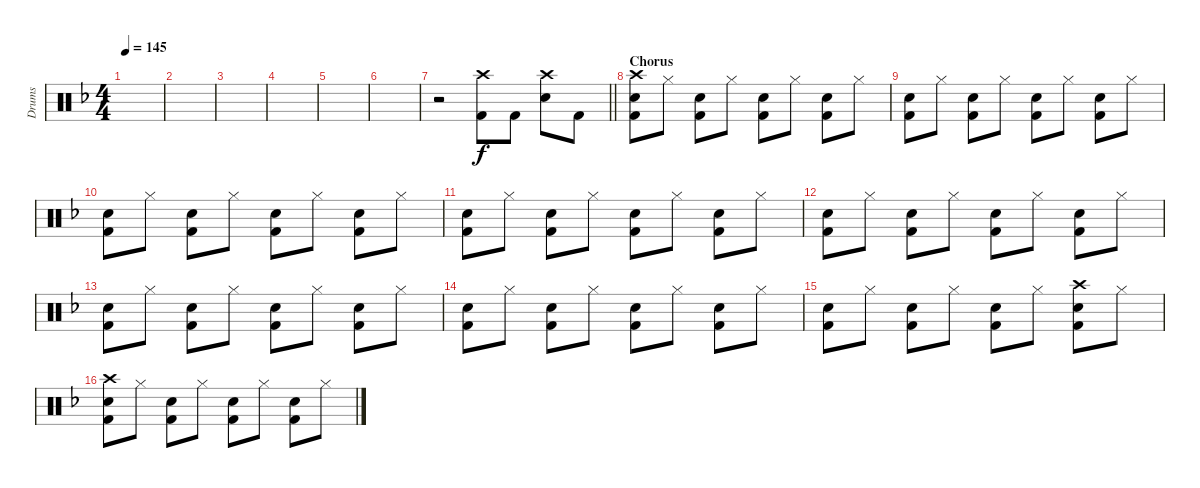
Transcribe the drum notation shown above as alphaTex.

\track ("Drums" "Drums") {instrument percussion}
\staff {score}
\articulation defaults
\ts (4 4)
\tempo 145
\clef neutral
\ks f
|
|
|
|
|
|
\barLineRight lightlight
r.2 ("Kick (hit) 2" "Crash high (hit)").8 "Kick (hit) 2".8 ("Snare (hit) 2" "Crash high (hit)").8 "Kick (hit) 2".8 |
\section ("" "Chorus")
("Kick (hit) 2" "Snare (hit) 2" "Crash high (hit)").8 "Hi-Hat (closed)".8 ("Kick (hit) 2" "Snare (hit) 2").8 "Hi-Hat (closed)".8 ("Kick (hit) 2" "Snare (hit) 2").8 "Hi-Hat (closed)".8 ("Kick (hit) 2" "Snare (hit) 2").8 "Hi-Hat (closed)".8 |
("Kick (hit) 2" "Snare (hit) 2").8 "Hi-Hat (closed)".8 ("Kick (hit) 2" "Snare (hit) 2").8 "Hi-Hat (closed)".8 ("Kick (hit) 2" "Snare (hit) 2").8 "Hi-Hat (closed)".8 ("Kick (hit) 2" "Snare (hit) 2").8 "Hi-Hat (closed)".8 |
("Kick (hit) 2" "Snare (hit) 2").8 "Hi-Hat (closed)".8 ("Kick (hit) 2" "Snare (hit) 2").8 "Hi-Hat (closed)".8 ("Kick (hit) 2" "Snare (hit) 2").8 "Hi-Hat (closed)".8 ("Kick (hit) 2" "Snare (hit) 2").8 "Hi-Hat (closed)".8 |
("Kick (hit) 2" "Snare (hit) 2").8 "Hi-Hat (closed)".8 ("Kick (hit) 2" "Snare (hit) 2").8 "Hi-Hat (closed)".8 ("Kick (hit) 2" "Snare (hit) 2").8 "Hi-Hat (closed)".8 ("Kick (hit) 2" "Snare (hit) 2").8 "Hi-Hat (closed)".8 |
("Kick (hit) 2" "Snare (hit) 2").8 "Hi-Hat (closed)".8 ("Kick (hit) 2" "Snare (hit) 2").8 "Hi-Hat (closed)".8 ("Kick (hit) 2" "Snare (hit) 2").8 "Hi-Hat (closed)".8 ("Kick (hit) 2" "Snare (hit) 2").8 "Hi-Hat (closed)".8 |
("Kick (hit) 2" "Snare (hit) 2").8 "Hi-Hat (closed)".8 ("Kick (hit) 2" "Snare (hit) 2").8 "Hi-Hat (closed)".8 ("Kick (hit) 2" "Snare (hit) 2").8 "Hi-Hat (closed)".8 ("Kick (hit) 2" "Snare (hit) 2").8 "Hi-Hat (closed)".8 |
("Kick (hit) 2" "Snare (hit) 2").8 "Hi-Hat (closed)".8 ("Kick (hit) 2" "Snare (hit) 2").8 "Hi-Hat (closed)".8 ("Kick (hit) 2" "Snare (hit) 2").8 "Hi-Hat (closed)".8 ("Kick (hit) 2" "Snare (hit) 2").8 "Hi-Hat (closed)".8 |
("Kick (hit) 2" "Snare (hit) 2").8 "Hi-Hat (closed)".8 ("Kick (hit) 2" "Snare (hit) 2").8 "Hi-Hat (closed)".8 ("Kick (hit) 2" "Snare (hit) 2").8 "Hi-Hat (closed)".8 ("Kick (hit) 2" "Snare (hit) 2" "Crash high (hit)").8 "Hi-Hat (closed)".8 |
("Kick (hit) 2" "Snare (hit) 2" "Crash high (hit)").8 "Hi-Hat (closed)".8 ("Kick (hit) 2" "Snare (hit) 2").8 "Hi-Hat (closed)".8 ("Kick (hit) 2" "Snare (hit) 2").8 "Hi-Hat (closed)".8 ("Kick (hit) 2" "Snare (hit) 2").8 "Hi-Hat (closed)".8
